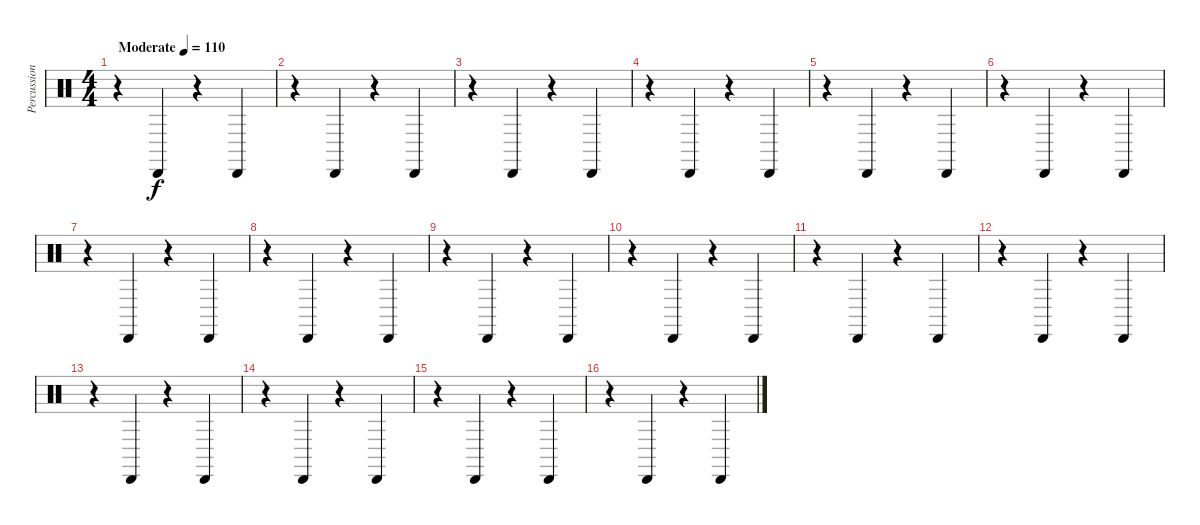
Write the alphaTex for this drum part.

\track ("Percussion" "Percussion") {instrument percussion}
\staff {score}
\articulation defaults
\ts (4 4)
\tempo (110 "Moderate")
\clef neutral
\ks c
r.4{dy f} "Cabasa (hit)".4 r.4 "Cabasa (hit)".4 |
r.4 "Cabasa (hit)".4 r.4 "Cabasa (hit)".4 |
r.4 "Cabasa (hit)".4 r.4 "Cabasa (hit)".4 |
r.4 "Cabasa (hit)".4 r.4 "Cabasa (hit)".4 |
r.4 "Cabasa (hit)".4 r.4 "Cabasa (hit)".4 |
r.4 "Cabasa (hit)".4 r.4 "Cabasa (hit)".4 |
r.4 "Cabasa (hit)".4 r.4 "Cabasa (hit)".4 |
r.4 "Cabasa (hit)".4 r.4 "Cabasa (hit)".4 |
r.4 "Cabasa (hit)".4 r.4 "Cabasa (hit)".4 |
r.4 "Cabasa (hit)".4 r.4 "Cabasa (hit)".4 |
r.4 "Cabasa (hit)".4 r.4 "Cabasa (hit)".4 |
r.4 "Cabasa (hit)".4 r.4 "Cabasa (hit)".4 |
r.4 "Cabasa (hit)".4 r.4 "Cabasa (hit)".4 |
r.4 "Cabasa (hit)".4 r.4 "Cabasa (hit)".4 |
r.4 "Cabasa (hit)".4 r.4 "Cabasa (hit)".4 |
r.4 "Cabasa (hit)".4 r.4 "Cabasa (hit)".4
